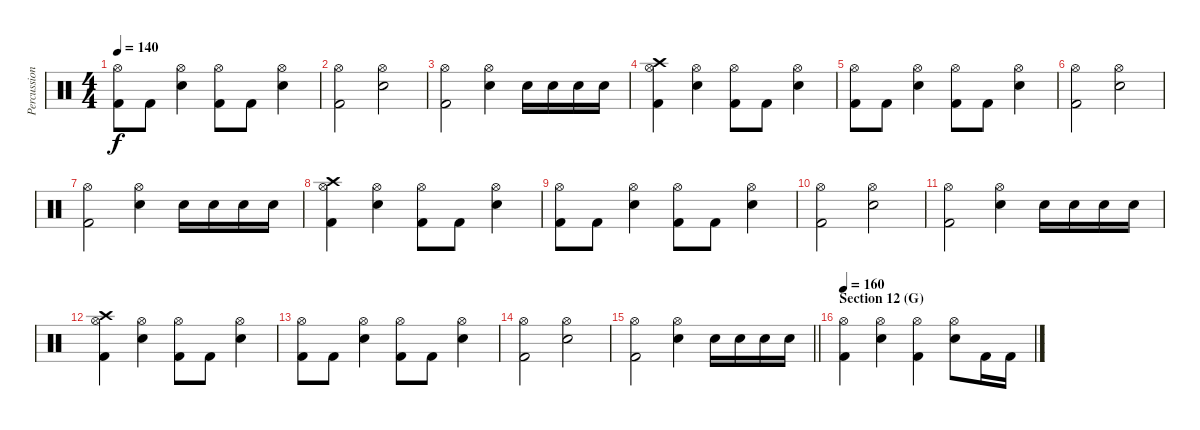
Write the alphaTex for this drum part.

\track ("Percussion" "Percussion") {instrument percussion}
\staff {score}
\articulation defaults
\ts (4 4)
\tempo 140
\clef neutral
\ks c
("Hi-Hat (open)" "Kick (hit) 2").8{dy f} "Kick (hit) 2".8 ("Hi-Hat (open)" "Snare (hit) 2").4 ("Hi-Hat (open)" "Kick (hit) 2").8 "Kick (hit) 2".8 ("Hi-Hat (open)" "Snare (hit) 2").4 |
("Hi-Hat (open)" "Kick (hit) 2").2 ("Hi-Hat (open)" "Snare (hit) 2").2 |
("Hi-Hat (open)" "Kick (hit) 2").2 ("Hi-Hat (open)" "Snare (hit) 2").4 "Snare (hit) 2".16 "Snare (hit) 2".16 "Snare (hit) 2".16 "Snare (hit) 2".16 |
("Crash high (hit)" "Hi-Hat (open)" "Kick (hit) 2").4 ("Hi-Hat (open)" "Snare (hit) 2").4 ("Hi-Hat (open)" "Kick (hit) 2").8 "Kick (hit) 2".8 ("Hi-Hat (open)" "Snare (hit) 2").4 |
("Hi-Hat (open)" "Kick (hit) 2").8 "Kick (hit) 2".8 ("Hi-Hat (open)" "Snare (hit) 2").4 ("Hi-Hat (open)" "Kick (hit) 2").8 "Kick (hit) 2".8 ("Hi-Hat (open)" "Snare (hit) 2").4 |
("Hi-Hat (open)" "Kick (hit) 2").2 ("Hi-Hat (open)" "Snare (hit) 2").2 |
("Hi-Hat (open)" "Kick (hit) 2").2 ("Hi-Hat (open)" "Snare (hit) 2").4 "Snare (hit) 2".16 "Snare (hit) 2".16 "Snare (hit) 2".16 "Snare (hit) 2".16 |
("Crash high (hit)" "Hi-Hat (open)" "Kick (hit) 2").4 ("Hi-Hat (open)" "Snare (hit) 2").4 ("Hi-Hat (open)" "Kick (hit) 2").8 "Kick (hit) 2".8 ("Hi-Hat (open)" "Snare (hit) 2").4 |
("Hi-Hat (open)" "Kick (hit) 2").8 "Kick (hit) 2".8 ("Hi-Hat (open)" "Snare (hit) 2").4 ("Hi-Hat (open)" "Kick (hit) 2").8 "Kick (hit) 2".8 ("Hi-Hat (open)" "Snare (hit) 2").4 |
("Hi-Hat (open)" "Kick (hit) 2").2 ("Hi-Hat (open)" "Snare (hit) 2").2 |
("Hi-Hat (open)" "Kick (hit) 2").2 ("Hi-Hat (open)" "Snare (hit) 2").4 "Snare (hit) 2".16 "Snare (hit) 2".16 "Snare (hit) 2".16 "Snare (hit) 2".16 |
("Crash high (hit)" "Hi-Hat (open)" "Kick (hit) 2").4 ("Hi-Hat (open)" "Snare (hit) 2").4 ("Hi-Hat (open)" "Kick (hit) 2").8 "Kick (hit) 2".8 ("Hi-Hat (open)" "Snare (hit) 2").4 |
("Hi-Hat (open)" "Kick (hit) 2").8 "Kick (hit) 2".8 ("Hi-Hat (open)" "Snare (hit) 2").4 ("Hi-Hat (open)" "Kick (hit) 2").8 "Kick (hit) 2".8 ("Hi-Hat (open)" "Snare (hit) 2").4 |
("Hi-Hat (open)" "Kick (hit) 2").2 ("Hi-Hat (open)" "Snare (hit) 2").2 |
\barLineRight lightlight
("Hi-Hat (open)" "Kick (hit) 2").2 ("Hi-Hat (open)" "Snare (hit) 2").4 "Snare (hit) 2".16 "Snare (hit) 2".16 "Snare (hit) 2".16 "Snare (hit) 2".16 |
\section ("" "Section 12 (G)")
\tempo 160
("Hi-Hat (open)" "Kick (hit) 2").4 ("Hi-Hat (open)" "Snare (hit) 2").4 ("Hi-Hat (open)" "Kick (hit) 2").4 ("Hi-Hat (open)" "Snare (hit) 2").8 "Kick (hit) 2".16 "Kick (hit) 2".16
